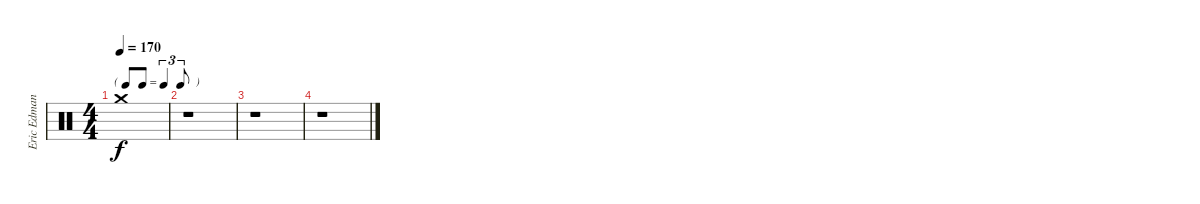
\track ("Eric Edman - Drums" "Eric Edman") {instrument percussion}
\staff {score}
\articulation defaults
\ts (4 4)
\tf triplet8th
\tempo 170
\clef neutral
\ks c "Crash medium (hit)".1{dy f}
|
r.1 |
r.1 |
r.1
